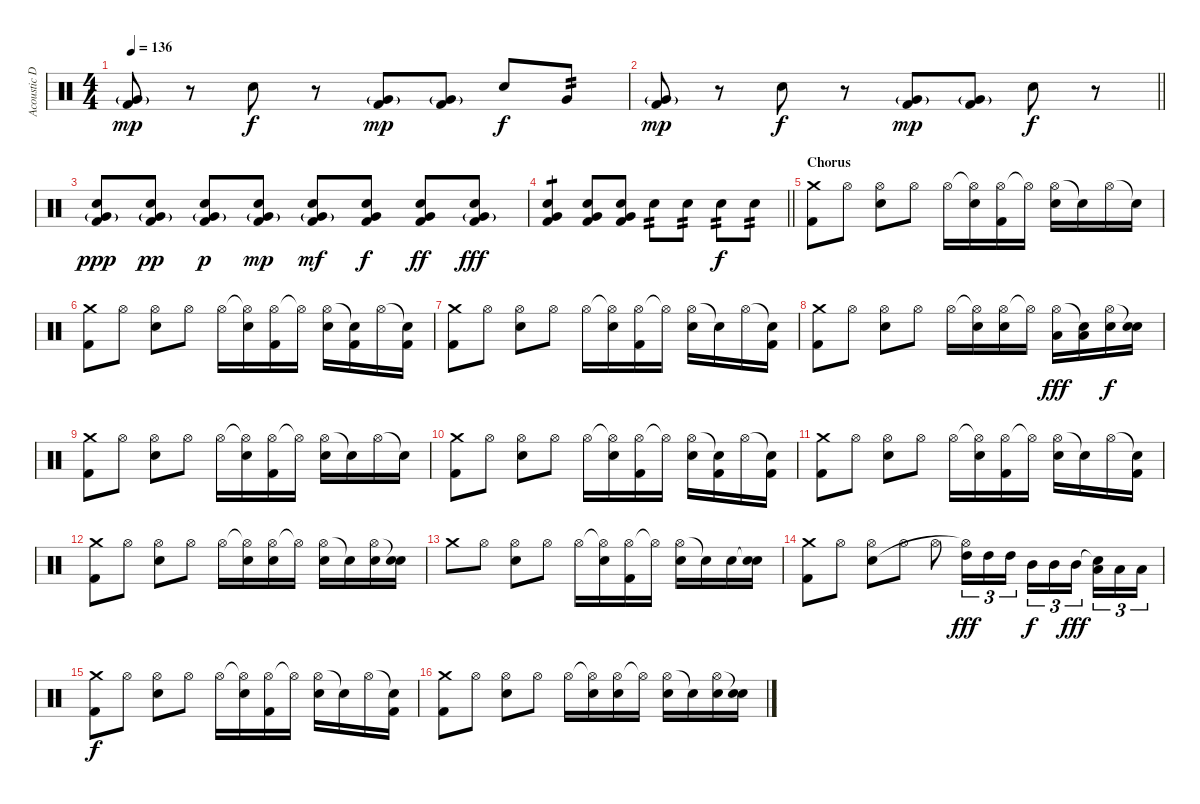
\track ("Acoustic Drums" "Acoustic D") {instrument percussion}
\staff {score}
\articulation defaults
\ts (4 4)
\tempo 136
\clef neutral
\ks c
("Very Low Tom (hit)"{g} "Kick (hit) 2").8{dy mp} r.8 "Snare (hit) 2".8{dy f} r.8 ("Very Low Tom (hit)"{g} "Kick (hit) 2").8{dy mp} ("Very Low Tom (hit)"{g} "Kick (hit) 2").8 "Snare (hit) 2".8{dy f} "Very Low Tom (hit)".8{tp 2} |
\barLineRight lightlight
("Very Low Tom (hit)"{g} "Kick (hit) 2").8{dy mp} r.8 "Snare (hit) 2".8{dy f} r.8 ("Very Low Tom (hit)"{g} "Kick (hit) 2").8{dy mp} ("Very Low Tom (hit)"{g} "Kick (hit) 2").8 "Snare (hit) 2".8{dy f} r.8 |
("Very Low Tom (hit)"{g} "Snare (hit) 2" "Kick (hit) 2").8{dy ppp} ("Very Low Tom (hit)"{g} "Snare (hit) 2" "Kick (hit) 2").8{dy pp} ("Very Low Tom (hit)"{g} "Snare (hit) 2" "Kick (hit) 2").8{dy p} ("Very Low Tom (hit)"{g} "Snare (hit) 2" "Kick (hit) 2").8{dy mp} ("Very Low Tom (hit)"{g} "Snare (hit) 2" "Kick (hit) 2").8{dy mf} ("Very Low Tom (hit)" "Snare (hit) 2" "Kick (hit) 2").8{dy f} ("Very Low Tom (hit)" "Snare (hit) 2" "Kick (hit) 2").8{dy ff} ("Very Low Tom (hit)"{g} "Snare (hit) 2" "Kick (hit) 2").8{dy fff} |
\barLineRight lightlight
("Very Low Tom (hit)" "Snare (hit) 2" "Kick (hit) 2").4{tp 1} ("Very Low Tom (hit)" "Snare (hit) 2" "Kick (hit) 2").8 ("Very Low Tom (hit)" "Snare (hit) 2" "Kick (hit) 2").8 "Snare (hit) 2".8{tp 2} "Snare (hit) 2".8{tp 2} "Snare (hit) 2".8{tp 2 dy f} "Snare (hit) 2".8{tp 2} |
\section ("" "Chorus")
("Crash medium (hit)" "Kick (hit) 2").8 "Hi-Hat (open)".8 ("Hi-Hat (open)" "Snare (hit) 2").8 "Hi-Hat (open)".8 "Hi-Hat (open)".16 ("Hi-Hat (open)"{t} "Snare (hit) 2").16 ("Hi-Hat (open)" "Kick (hit) 2").16 "Hi-Hat (open)"{t}.16 ("Hi-Hat (open)" "Snare (hit) 2").16 "Snare (hit)"{t}.16 "Hi-Hat (open)".16 "Snare (hit)"{t}.16 |
("Crash medium (hit)" "Kick (hit) 2").8 "Hi-Hat (open)".8 ("Hi-Hat (open)" "Snare (hit) 2").8 "Hi-Hat (open)".8 "Hi-Hat (open)".16 ("Hi-Hat (open)"{t} "Snare (hit) 2").16 ("Hi-Hat (open)" "Kick (hit) 2").16 "Hi-Hat (open)"{t}.16 ("Hi-Hat (open)" "Snare (hit) 2").16 ("Snare (hit)"{t} "Kick (hit) 2").16 "Hi-Hat (open)".16 ("Snare (hit)"{t} "Kick (hit) 2").16 |
("Crash medium (hit)" "Kick (hit) 2").8 "Hi-Hat (open)".8 ("Hi-Hat (open)" "Snare (hit) 2").8 "Hi-Hat (open)".8 "Hi-Hat (open)".16 ("Hi-Hat (open)"{t} "Snare (hit) 2").16 ("Hi-Hat (open)" "Kick (hit) 2").16 "Hi-Hat (open)"{t}.16 ("Hi-Hat (open)" "Snare (hit) 2").16 "Snare (hit)"{t}.16 "Hi-Hat (open)".16 ("Snare (hit)"{t} "Kick (hit) 2").16 |
("Crash medium (hit)" "Kick (hit) 2").8 "Hi-Hat (open)".8 ("Hi-Hat (open)" "Snare (hit) 2").8 "Hi-Hat (open)".8 "Hi-Hat (open)".16 ("Hi-Hat (open)"{t} "Snare (hit) 2").16 ("Hi-Hat (open)" "Snare (hit) 2").16 "Hi-Hat (open)"{t}.16 ("Hi-Hat (open)" "Low Tom (hit)").16{dy fff} ("Snare (hit)"{t} "Low Tom (hit)").16 ("Hi-Hat (open)" "Snare (hit) 2").16{dy f} ("Snare (hit)"{t} "Snare (hit) 2").16 |
("Crash medium (hit)" "Kick (hit) 2").8 "Hi-Hat (open)".8 ("Hi-Hat (open)" "Snare (hit) 2").8 "Hi-Hat (open)".8 "Hi-Hat (open)".16 ("Hi-Hat (open)"{t} "Snare (hit) 2").16 ("Hi-Hat (open)" "Kick (hit) 2").16 "Hi-Hat (open)"{t}.16 ("Hi-Hat (open)" "Snare (hit) 2").16 "Snare (hit)"{t}.16 "Hi-Hat (open)".16 "Snare (hit)"{t}.16 |
("Crash medium (hit)" "Kick (hit) 2").8 "Hi-Hat (open)".8 ("Hi-Hat (open)" "Snare (hit) 2").8 "Hi-Hat (open)".8 "Hi-Hat (open)".16 ("Hi-Hat (open)"{t} "Snare (hit) 2").16 ("Hi-Hat (open)" "Kick (hit) 2").16 "Hi-Hat (open)"{t}.16 ("Hi-Hat (open)" "Snare (hit) 2").16 ("Snare (hit)"{t} "Kick (hit) 2").16 "Hi-Hat (open)".16 ("Snare (hit)"{t} "Kick (hit) 2").16 |
("Crash medium (hit)" "Kick (hit) 2").8 "Hi-Hat (open)".8 ("Hi-Hat (open)" "Snare (hit) 2").8 "Hi-Hat (open)".8 "Hi-Hat (open)".16 ("Hi-Hat (open)"{t} "Snare (hit) 2").16 ("Hi-Hat (open)" "Kick (hit) 2").16 "Hi-Hat (open)"{t}.16 ("Hi-Hat (open)" "Snare (hit) 2").16 "Snare (hit)"{t}.16 "Hi-Hat (open)".16 ("Snare (hit)"{t} "Kick (hit) 2").16 |
("Crash medium (hit)" "Kick (hit) 2").8 "Hi-Hat (open)".8 ("Hi-Hat (open)" "Snare (hit) 2").8 "Hi-Hat (open)".8 "Hi-Hat (open)".16 ("Hi-Hat (open)"{t} "Snare (hit) 2").16 ("Hi-Hat (open)" "Snare (hit) 2").16 "Hi-Hat (open)"{t}.16 ("Hi-Hat (open)" "Snare (hit) 2").16 "Snare (hit)"{t}.16 ("Hi-Hat (open)" "Snare (hit) 2").16 ("Snare (hit)"{t} "Snare (hit) 2").16 |
"Crash medium (hit)".8 "Hi-Hat (open)".8 ("Hi-Hat (open)" "Snare (hit) 2").8 "Hi-Hat (open)".8 "Hi-Hat (open)".16 ("Hi-Hat (open)"{t} "Snare (hit) 2").16 ("Hi-Hat (open)" "Kick (hit) 2").16 "Hi-Hat (open)"{t}.16 ("Hi-Hat (open)" "Snare (hit) 2").16 "Snare (hit)"{t}.16 "Snare (hit) 2".16 ("Snare (hit)"{t} "Snare (hit) 2").16 |
("Crash medium (hit)" "Kick (hit) 2").8 "Hi-Hat (open)".8 ("Hi-Hat (open)" "Snare (hit) 2").8 "Hi-Hat (open)".8 "Hi-Hat (open)".8 ("High Tom (hit)" "Hi-Hat (open)"{t}).16{tu (3 2) dy fff} "High Tom (hit)".16{tu (3 2)} "High Tom (hit)".16{tu (3 2)} "Mid Tom (hit)".16{tu (3 2) dy f} "Mid Tom (hit)".16{tu (3 2)} "Mid Tom (hit)".16{tu (3 2) dy fff beam splitsecondary} ("Snare (hit)"{t} "Low Tom (hit)").16{tu (3 2)} "Low Tom (hit)".16{tu (3 2)} "Low Tom (hit)".16{tu (3 2)} |
("Crash medium (hit)" "Kick (hit) 2").8{dy f} "Hi-Hat (open)".8 ("Hi-Hat (open)" "Snare (hit) 2").8 "Hi-Hat (open)".8 "Hi-Hat (open)".16 ("Hi-Hat (open)"{t} "Snare (hit) 2").16 ("Hi-Hat (open)" "Kick (hit) 2").16 "Hi-Hat (open)"{t}.16 ("Hi-Hat (open)" "Snare (hit) 2").16 "Snare (hit)"{t}.16 "Hi-Hat (open)".16 ("Snare (hit)"{t} "Kick (hit) 2").16 |
("Crash medium (hit)" "Kick (hit) 2").8 "Hi-Hat (open)".8 ("Hi-Hat (open)" "Snare (hit) 2").8 "Hi-Hat (open)".8 "Hi-Hat (open)".16 ("Hi-Hat (open)"{t} "Snare (hit) 2").16 ("Hi-Hat (open)" "Snare (hit) 2").16 "Hi-Hat (open)"{t}.16 ("Hi-Hat (open)" "Snare (hit) 2").16 "Snare (hit)"{t}.16 ("Hi-Hat (open)" "Snare (hit) 2").16 ("Snare (hit)"{t} "Snare (hit) 2").16
